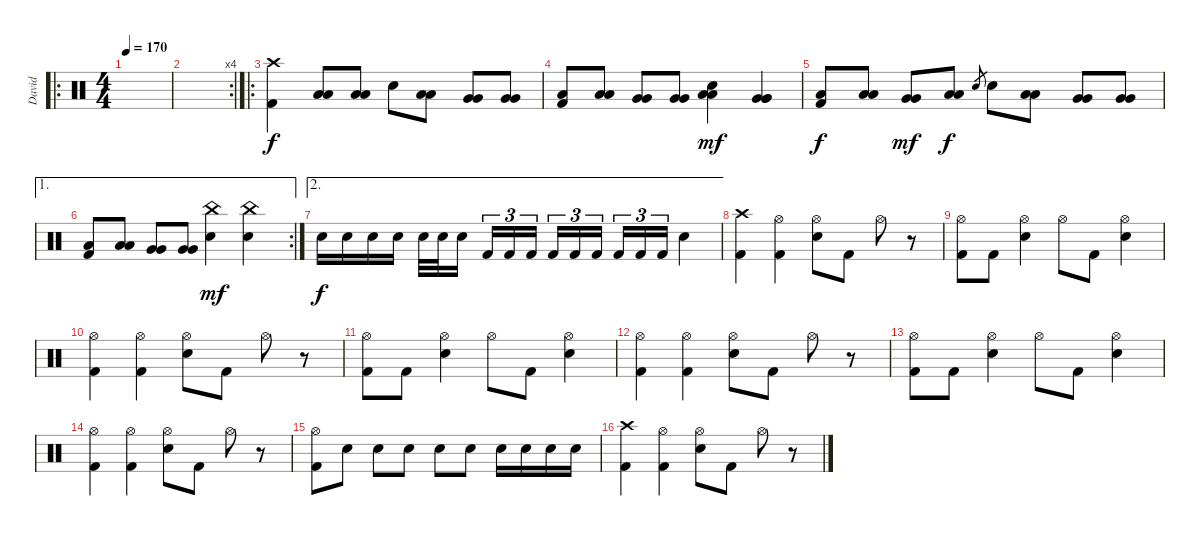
\track ("David" "David") {instrument percussion}
\staff {score}
\articulation defaults
\ro
\ts (4 4)
\tempo 170
\clef neutral
\ks c
|
\rc 4
|
\ro
("Crash high (hit)" "Kick (hit) 2").4 ("Low Tom (hit)" "Low Tom (hit)").8 ("Low Tom (hit)" "Low Tom (hit)").8 "Snare (hit) 2".8 ("Low Tom (hit)" "Low Tom (hit)").8 ("Very Low Tom (hit)" "Very Low Tom (hit)").8 ("Very Low Tom (hit)" "Very Low Tom (hit)").8 |
("Low Floor Tom (hit)" "Kick (hit) 2").8 ("Low Floor Tom (hit)" "Low Floor Tom (hit)").8 ("Very Low Tom (hit)" "Very Low Tom (hit)").8 ("Very Low Tom (hit)" "Very Low Tom (hit)").8 ("Low Floor Tom (hit)" "Snare (hit) 2" "Low Floor Tom (hit)").4{dy mf} ("Very Low Tom (hit)" "Very Low Tom (hit)" "Very Low Tom (hit)").4 |
("Low Floor Tom (hit)" "Kick (hit) 2").8{dy f} ("Low Floor Tom (hit)" "Low Floor Tom (hit)").8 ("Very Low Tom (hit)" "Very Low Tom (hit)").8{dy mf} ("Low Tom (hit)" "Low Tom (hit)").8{dy f} "Snare (hit) 2".8{gr} "Snare (hit) 2".8 ("Low Tom (hit)" "Low Tom (hit)").8 ("Very Low Tom (hit)" "Very Low Tom (hit)").8 ("Very Low Tom (hit)" "Very Low Tom (hit)").8 |
\ae 1
\rc 2
("Low Floor Tom (hit)" "Kick (hit) 2").8 ("Low Floor Tom (hit)" "Low Floor Tom (hit)").8 ("Very Low Tom (hit)" "Very Low Tom (hit)").8 ("Very Low Tom (hit)" "Very Low Tom (hit)").8 ("China (hit)" "Snare (hit) 2").4{dy mf} ("China (hit)" "Snare (hit) 2").4 |
\ae 2 "Snare (hit) 2".16{dy f} "Snare (hit) 2".16 "Snare (hit) 2".16 "Snare (hit) 2".16 "Snare (hit) 2".32 "Snare (hit) 2".32 "Snare (hit) 2".16{beam splitsecondary} "Kick (hit) 2".16{tu (3 2)} "Kick (hit) 2".16{tu (3 2)} "Kick (hit) 2".16{tu (3 2)} "Kick (hit) 2".16{tu (3 2)} "Kick (hit) 2".16{tu (3 2)} "Kick (hit) 2".16{tu (3 2) beam splitsecondary} "Kick (hit) 2".16{tu (3 2)} "Kick (hit) 2".16{tu (3 2)} "Kick (hit) 2".16{tu (3 2)} "Snare (hit) 2".4
|
("Crash high (hit)" "Kick (hit) 2").4 ("Hi-Hat (open)" "Kick (hit) 2").4 ("Hi-Hat (open)" "Snare (hit) 2").8 "Kick (hit) 2".8 "Hi-Hat (open)".8 r.8 |
("Hi-Hat (open)" "Kick (hit) 2").8 "Kick (hit) 2".8 ("Hi-Hat (open)" "Snare (hit) 2").4 "Hi-Hat (open)".8 "Kick (hit) 2".8 ("Hi-Hat (open)" "Snare (hit) 2").4 |
("Hi-Hat (open)" "Kick (hit) 2").4 ("Hi-Hat (open)" "Kick (hit) 2").4 ("Hi-Hat (open)" "Snare (hit) 2").8 "Kick (hit) 2".8 "Hi-Hat (open)".8 r.8 |
("Hi-Hat (open)" "Kick (hit) 2").8 "Kick (hit) 2".8 ("Hi-Hat (open)" "Snare (hit) 2").4 "Hi-Hat (open)".8 "Kick (hit) 2".8 ("Hi-Hat (open)" "Snare (hit) 2").4 |
("Hi-Hat (open)" "Kick (hit) 2").4 ("Hi-Hat (open)" "Kick (hit) 2").4 ("Hi-Hat (open)" "Snare (hit) 2").8 "Kick (hit) 2".8 "Hi-Hat (open)".8 r.8 |
("Hi-Hat (open)" "Kick (hit) 2").8 "Kick (hit) 2".8 ("Hi-Hat (open)" "Snare (hit) 2").4 "Hi-Hat (open)".8 "Kick (hit) 2".8 ("Hi-Hat (open)" "Snare (hit) 2").4 |
("Hi-Hat (open)" "Kick (hit) 2").4 ("Hi-Hat (open)" "Kick (hit) 2").4 ("Hi-Hat (open)" "Snare (hit) 2").8 "Kick (hit) 2".8 "Hi-Hat (open)".8 r.8 |
("Hi-Hat (open)" "Kick (hit) 2").8 "Snare (hit) 2".8 "Snare (hit) 2".8 "Snare (hit) 2".8 "Snare (hit) 2".8 "Snare (hit) 2".8 "Snare (hit) 2".16 "Snare (hit) 2".16 "Snare (hit) 2".16 "Snare (hit) 2".16 |
("Crash high (hit)" "Kick (hit) 2").4 ("Hi-Hat (open)" "Kick (hit) 2").4 ("Hi-Hat (open)" "Snare (hit) 2").8 "Kick (hit) 2".8 "Hi-Hat (open)".8 r.8
